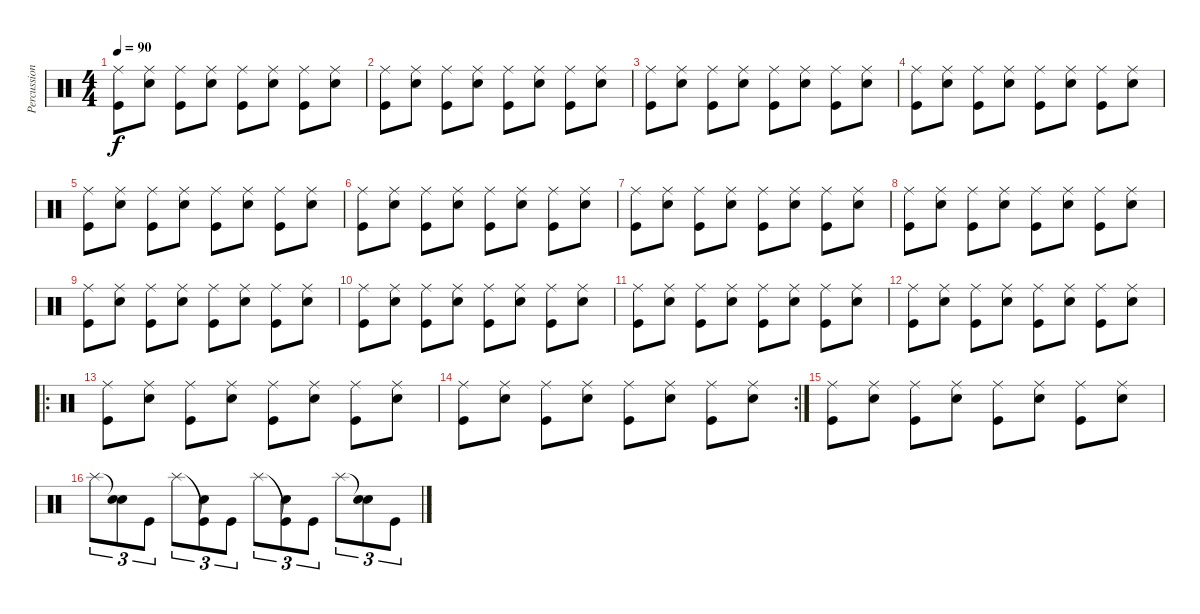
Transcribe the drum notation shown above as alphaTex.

\track ("Percussion" "Percussion") {instrument percussion}
\staff {score}
\articulation defaults
\ts (4 4)
\tempo 90
\clef neutral
\ks c
("Ride (middle)" "Kick (hit)").8{dy f} ("Ride (middle)" "Electric Snare (hit)").8 ("Ride (middle)" "Kick (hit)").8 ("Ride (middle)" "Electric Snare (hit)").8 ("Ride (middle)" "Kick (hit)").8 ("Ride (middle)" "Electric Snare (hit)").8 ("Ride (middle)" "Kick (hit)").8 ("Ride (middle)" "Electric Snare (hit)").8 |
("Ride (middle)" "Kick (hit)").8 ("Ride (middle)" "Electric Snare (hit)").8 ("Ride (middle)" "Kick (hit)").8 ("Ride (middle)" "Electric Snare (hit)").8 ("Ride (middle)" "Kick (hit)").8 ("Ride (middle)" "Electric Snare (hit)").8 ("Ride (middle)" "Kick (hit)").8 ("Ride (middle)" "Electric Snare (hit)").8 |
("Ride (middle)" "Kick (hit)").8 ("Ride (middle)" "Electric Snare (hit)").8 ("Ride (middle)" "Kick (hit)").8 ("Ride (middle)" "Electric Snare (hit)").8 ("Ride (middle)" "Kick (hit)").8 ("Ride (middle)" "Electric Snare (hit)").8 ("Ride (middle)" "Kick (hit)").8 ("Ride (middle)" "Electric Snare (hit)").8 |
("Ride (middle)" "Kick (hit)").8 ("Ride (middle)" "Electric Snare (hit)").8 ("Ride (middle)" "Kick (hit)").8 ("Ride (middle)" "Electric Snare (hit)").8 ("Ride (middle)" "Kick (hit)").8 ("Ride (middle)" "Electric Snare (hit)").8 ("Ride (middle)" "Kick (hit)").8 ("Ride (middle)" "Electric Snare (hit)").8 |
("Ride (middle)" "Kick (hit)").8 ("Ride (middle)" "Electric Snare (hit)").8 ("Ride (middle)" "Kick (hit)").8 ("Ride (middle)" "Electric Snare (hit)").8 ("Ride (middle)" "Kick (hit)").8 ("Ride (middle)" "Electric Snare (hit)").8 ("Ride (middle)" "Kick (hit)").8 ("Ride (middle)" "Electric Snare (hit)").8 |
("Ride (middle)" "Kick (hit)").8 ("Ride (middle)" "Electric Snare (hit)").8 ("Ride (middle)" "Kick (hit)").8 ("Ride (middle)" "Electric Snare (hit)").8 ("Ride (middle)" "Kick (hit)").8 ("Ride (middle)" "Electric Snare (hit)").8 ("Ride (middle)" "Kick (hit)").8 ("Ride (middle)" "Electric Snare (hit)").8 |
("Ride (middle)" "Kick (hit)").8 ("Ride (middle)" "Electric Snare (hit)").8 ("Ride (middle)" "Kick (hit)").8 ("Ride (middle)" "Electric Snare (hit)").8 ("Ride (middle)" "Kick (hit)").8 ("Ride (middle)" "Electric Snare (hit)").8 ("Ride (middle)" "Kick (hit)").8 ("Ride (middle)" "Electric Snare (hit)").8 |
("Ride (middle)" "Kick (hit)").8 ("Ride (middle)" "Electric Snare (hit)").8 ("Ride (middle)" "Kick (hit)").8 ("Ride (middle)" "Electric Snare (hit)").8 ("Ride (middle)" "Kick (hit)").8 ("Ride (middle)" "Electric Snare (hit)").8 ("Ride (middle)" "Kick (hit)").8 ("Ride (middle)" "Electric Snare (hit)").8 |
("Ride (middle)" "Kick (hit)").8 ("Ride (middle)" "Electric Snare (hit)").8 ("Ride (middle)" "Kick (hit)").8 ("Ride (middle)" "Electric Snare (hit)").8 ("Ride (middle)" "Kick (hit)").8 ("Ride (middle)" "Electric Snare (hit)").8 ("Ride (middle)" "Kick (hit)").8 ("Ride (middle)" "Electric Snare (hit)").8 |
("Ride (middle)" "Kick (hit)").8 ("Ride (middle)" "Electric Snare (hit)").8 ("Ride (middle)" "Kick (hit)").8 ("Ride (middle)" "Electric Snare (hit)").8 ("Ride (middle)" "Kick (hit)").8 ("Ride (middle)" "Electric Snare (hit)").8 ("Ride (middle)" "Kick (hit)").8 ("Ride (middle)" "Electric Snare (hit)").8 |
("Ride (middle)" "Kick (hit)").8 ("Ride (middle)" "Electric Snare (hit)").8 ("Ride (middle)" "Kick (hit)").8 ("Ride (middle)" "Electric Snare (hit)").8 ("Ride (middle)" "Kick (hit)").8 ("Ride (middle)" "Electric Snare (hit)").8 ("Ride (middle)" "Kick (hit)").8 ("Ride (middle)" "Electric Snare (hit)").8 |
("Ride (middle)" "Kick (hit)").8 ("Ride (middle)" "Electric Snare (hit)").8 ("Ride (middle)" "Kick (hit)").8 ("Ride (middle)" "Electric Snare (hit)").8 ("Ride (middle)" "Kick (hit)").8 ("Ride (middle)" "Electric Snare (hit)").8 ("Ride (middle)" "Kick (hit)").8 ("Ride (middle)" "Electric Snare (hit)").8 |
\ro
("Ride (middle)" "Kick (hit)").8 ("Ride (middle)" "Electric Snare (hit)").8 ("Ride (middle)" "Kick (hit)").8 ("Ride (middle)" "Electric Snare (hit)").8 ("Ride (middle)" "Kick (hit)").8 ("Ride (middle)" "Electric Snare (hit)").8 ("Ride (middle)" "Kick (hit)").8 ("Ride (middle)" "Electric Snare (hit)").8 |
\rc 2
("Ride (middle)" "Kick (hit)").8 ("Ride (middle)" "Electric Snare (hit)").8 ("Ride (middle)" "Kick (hit)").8 ("Ride (middle)" "Electric Snare (hit)").8 ("Ride (middle)" "Kick (hit)").8 ("Ride (middle)" "Electric Snare (hit)").8 ("Ride (middle)" "Kick (hit)").8 ("Ride (middle)" "Electric Snare (hit)").8 |
("Ride (middle)" "Kick (hit)").8 ("Ride (middle)" "Electric Snare (hit)").8 ("Ride (middle)" "Kick (hit)").8 ("Ride (middle)" "Electric Snare (hit)").8 ("Ride (middle)" "Kick (hit)").8 ("Ride (middle)" "Electric Snare (hit)").8 ("Ride (middle)" "Kick (hit)").8 ("Ride (middle)" "Electric Snare (hit)").8 |
"Splash (hit)".8{tu (3 2)} ("Snare (hit)"{t} "Electric Snare (hit)").8{tu (3 2)} "Kick (hit)".8{tu (3 2)} "Splash (hit)".8{tu (3 2)} ("Kick (hit)"{t} "Electric Snare (hit)").8{tu (3 2)} "Kick (hit)".8{tu (3 2)} "Splash (hit)".8{tu (3 2)} ("Kick (hit)"{t} "Electric Snare (hit)").8{tu (3 2)} "Kick (hit)".8{tu (3 2)} "Splash (hit)".8{tu (3 2)} ("Snare (hit)"{t} "Electric Snare (hit)").8{tu (3 2)} "Kick (hit)".8{tu (3 2)}
